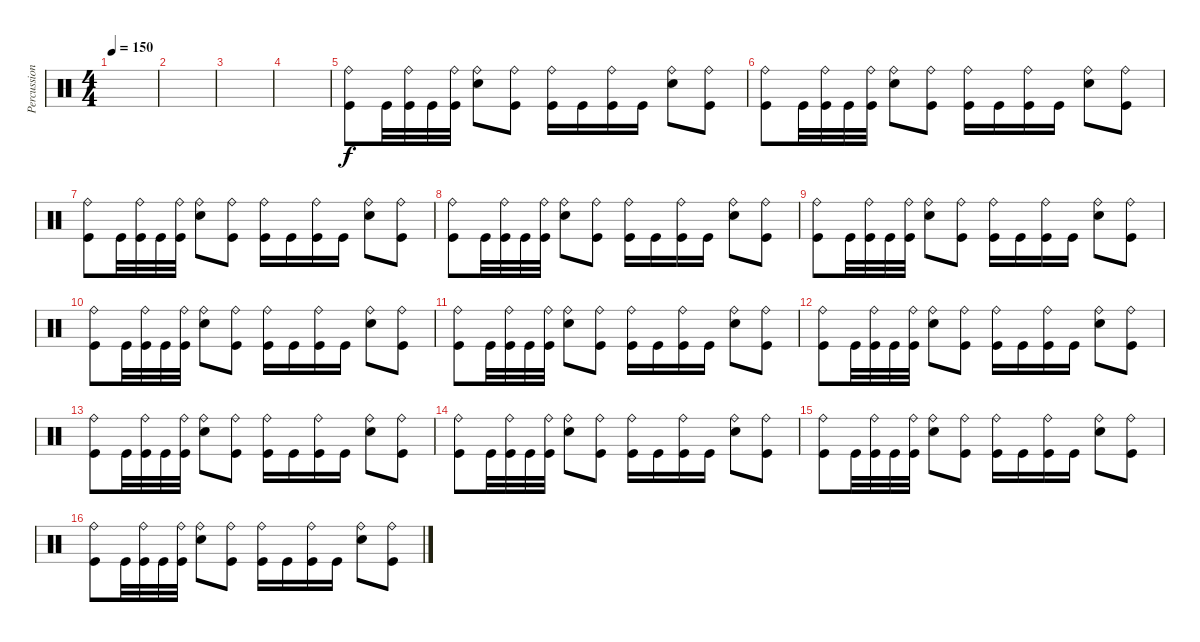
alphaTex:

\track ("Percussion" "Percussion") {instrument percussion}
\staff {score}
\articulation defaults
\ts (4 4)
\tempo 150
\clef neutral
\ks c
|
|
|
|
("Kick (hit)" "Ride (bell)").8 "Kick (hit)".32 ("Kick (hit)" "Ride (bell)").32 "Kick (hit)".32 ("Kick (hit)" "Ride (bell)").32 ("Electric Snare (hit)" "Ride (bell)").8 ("Kick (hit)" "Ride (bell)").8 ("Kick (hit)" "Ride (bell)").16 "Kick (hit)".16 ("Kick (hit)" "Ride (bell)").16 "Kick (hit)".16 ("Electric Snare (hit)" "Ride (bell)").8 ("Kick (hit)" "Ride (bell)").8 |
("Kick (hit)" "Ride (bell)").8 "Kick (hit)".32 ("Kick (hit)" "Ride (bell)").32 "Kick (hit)".32 ("Kick (hit)" "Ride (bell)").32 ("Electric Snare (hit)" "Ride (bell)").8 ("Kick (hit)" "Ride (bell)").8 ("Kick (hit)" "Ride (bell)").16 "Kick (hit)".16 ("Kick (hit)" "Ride (bell)").16 "Kick (hit)".16 ("Electric Snare (hit)" "Ride (bell)").8 ("Kick (hit)" "Ride (bell)").8 |
("Kick (hit)" "Ride (bell)").8 "Kick (hit)".32 ("Kick (hit)" "Ride (bell)").32 "Kick (hit)".32 ("Kick (hit)" "Ride (bell)").32 ("Electric Snare (hit)" "Ride (bell)").8 ("Kick (hit)" "Ride (bell)").8 ("Kick (hit)" "Ride (bell)").16 "Kick (hit)".16 ("Kick (hit)" "Ride (bell)").16 "Kick (hit)".16 ("Electric Snare (hit)" "Ride (bell)").8 ("Kick (hit)" "Ride (bell)").8 |
("Kick (hit)" "Ride (bell)").8 "Kick (hit)".32 ("Kick (hit)" "Ride (bell)").32 "Kick (hit)".32 ("Kick (hit)" "Ride (bell)").32 ("Electric Snare (hit)" "Ride (bell)").8 ("Kick (hit)" "Ride (bell)").8 ("Kick (hit)" "Ride (bell)").16 "Kick (hit)".16 ("Kick (hit)" "Ride (bell)").16 "Kick (hit)".16 ("Electric Snare (hit)" "Ride (bell)").8 ("Kick (hit)" "Ride (bell)").8 |
("Kick (hit)" "Ride (bell)").8 "Kick (hit)".32 ("Kick (hit)" "Ride (bell)").32 "Kick (hit)".32 ("Kick (hit)" "Ride (bell)").32 ("Electric Snare (hit)" "Ride (bell)").8 ("Kick (hit)" "Ride (bell)").8 ("Kick (hit)" "Ride (bell)").16 "Kick (hit)".16 ("Kick (hit)" "Ride (bell)").16 "Kick (hit)".16 ("Electric Snare (hit)" "Ride (bell)").8 ("Kick (hit)" "Ride (bell)").8 |
("Kick (hit)" "Ride (bell)").8 "Kick (hit)".32 ("Kick (hit)" "Ride (bell)").32 "Kick (hit)".32 ("Kick (hit)" "Ride (bell)").32 ("Electric Snare (hit)" "Ride (bell)").8 ("Kick (hit)" "Ride (bell)").8 ("Kick (hit)" "Ride (bell)").16 "Kick (hit)".16 ("Kick (hit)" "Ride (bell)").16 "Kick (hit)".16 ("Electric Snare (hit)" "Ride (bell)").8 ("Kick (hit)" "Ride (bell)").8 |
("Kick (hit)" "Ride (bell)").8 "Kick (hit)".32 ("Kick (hit)" "Ride (bell)").32 "Kick (hit)".32 ("Kick (hit)" "Ride (bell)").32 ("Electric Snare (hit)" "Ride (bell)").8 ("Kick (hit)" "Ride (bell)").8 ("Kick (hit)" "Ride (bell)").16 "Kick (hit)".16 ("Kick (hit)" "Ride (bell)").16 "Kick (hit)".16 ("Electric Snare (hit)" "Ride (bell)").8 ("Kick (hit)" "Ride (bell)").8 |
("Kick (hit)" "Ride (bell)").8 "Kick (hit)".32 ("Kick (hit)" "Ride (bell)").32 "Kick (hit)".32 ("Kick (hit)" "Ride (bell)").32 ("Electric Snare (hit)" "Ride (bell)").8 ("Kick (hit)" "Ride (bell)").8 ("Kick (hit)" "Ride (bell)").16 "Kick (hit)".16 ("Kick (hit)" "Ride (bell)").16 "Kick (hit)".16 ("Electric Snare (hit)" "Ride (bell)").8 ("Kick (hit)" "Ride (bell)").8 |
("Kick (hit)" "Ride (bell)").8 "Kick (hit)".32 ("Kick (hit)" "Ride (bell)").32 "Kick (hit)".32 ("Kick (hit)" "Ride (bell)").32 ("Electric Snare (hit)" "Ride (bell)").8 ("Kick (hit)" "Ride (bell)").8 ("Kick (hit)" "Ride (bell)").16 "Kick (hit)".16 ("Kick (hit)" "Ride (bell)").16 "Kick (hit)".16 ("Electric Snare (hit)" "Ride (bell)").8 ("Kick (hit)" "Ride (bell)").8 |
("Kick (hit)" "Ride (bell)").8 "Kick (hit)".32 ("Kick (hit)" "Ride (bell)").32 "Kick (hit)".32 ("Kick (hit)" "Ride (bell)").32 ("Electric Snare (hit)" "Ride (bell)").8 ("Kick (hit)" "Ride (bell)").8 ("Kick (hit)" "Ride (bell)").16 "Kick (hit)".16 ("Kick (hit)" "Ride (bell)").16 "Kick (hit)".16 ("Electric Snare (hit)" "Ride (bell)").8 ("Kick (hit)" "Ride (bell)").8 |
("Kick (hit)" "Ride (bell)").8 "Kick (hit)".32 ("Kick (hit)" "Ride (bell)").32 "Kick (hit)".32 ("Kick (hit)" "Ride (bell)").32 ("Electric Snare (hit)" "Ride (bell)").8 ("Kick (hit)" "Ride (bell)").8 ("Kick (hit)" "Ride (bell)").16 "Kick (hit)".16 ("Kick (hit)" "Ride (bell)").16 "Kick (hit)".16 ("Electric Snare (hit)" "Ride (bell)").8 ("Kick (hit)" "Ride (bell)").8 |
("Kick (hit)" "Ride (bell)").8 "Kick (hit)".32 ("Kick (hit)" "Ride (bell)").32 "Kick (hit)".32 ("Kick (hit)" "Ride (bell)").32 ("Electric Snare (hit)" "Ride (bell)").8 ("Kick (hit)" "Ride (bell)").8 ("Kick (hit)" "Ride (bell)").16 "Kick (hit)".16 ("Kick (hit)" "Ride (bell)").16 "Kick (hit)".16 ("Electric Snare (hit)" "Ride (bell)").8 ("Kick (hit)" "Ride (bell)").8
